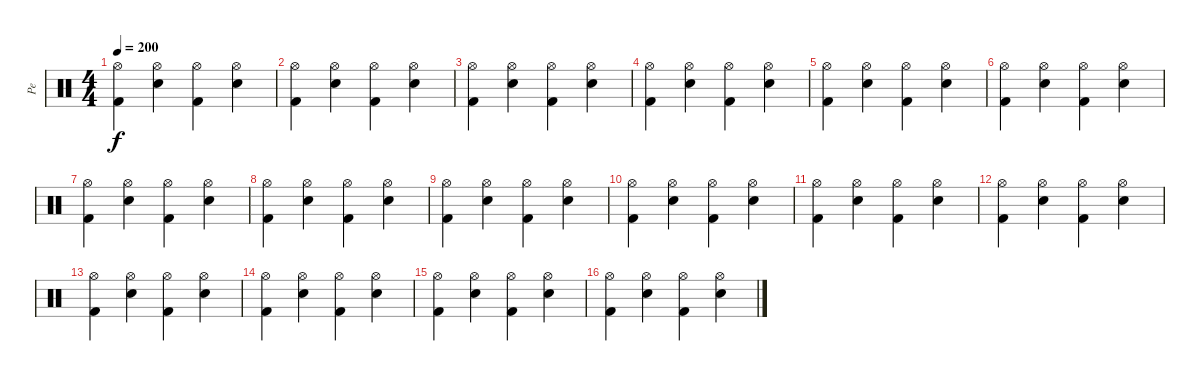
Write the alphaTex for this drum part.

\track ("Pe" "Pe") {instrument percussion}
\staff {score}
\articulation defaults
\ts (4 4)
\tempo 200
\clef neutral
\ks c
("Hi-Hat (open)" "Kick (hit) 2").4{dy f} ("Hi-Hat (open)" "Electric Snare (hit)").4 ("Hi-Hat (open)" "Kick (hit) 2").4 ("Hi-Hat (open)" "Electric Snare (hit)").4 |
("Hi-Hat (open)" "Kick (hit) 2").4 ("Hi-Hat (open)" "Electric Snare (hit)").4 ("Hi-Hat (open)" "Kick (hit) 2").4 ("Hi-Hat (open)" "Electric Snare (hit)").4 |
("Hi-Hat (open)" "Kick (hit) 2").4 ("Hi-Hat (open)" "Electric Snare (hit)").4 ("Hi-Hat (open)" "Kick (hit) 2").4 ("Hi-Hat (open)" "Electric Snare (hit)").4 |
("Hi-Hat (open)" "Kick (hit) 2").4 ("Hi-Hat (open)" "Electric Snare (hit)").4 ("Hi-Hat (open)" "Kick (hit) 2").4 ("Hi-Hat (open)" "Electric Snare (hit)").4 |
("Hi-Hat (open)" "Kick (hit) 2").4 ("Hi-Hat (open)" "Electric Snare (hit)").4 ("Hi-Hat (open)" "Kick (hit) 2").4 ("Hi-Hat (open)" "Electric Snare (hit)").4 |
("Hi-Hat (open)" "Kick (hit) 2").4 ("Hi-Hat (open)" "Electric Snare (hit)").4 ("Hi-Hat (open)" "Kick (hit) 2").4 ("Hi-Hat (open)" "Electric Snare (hit)").4 |
("Hi-Hat (open)" "Kick (hit) 2").4 ("Hi-Hat (open)" "Electric Snare (hit)").4 ("Hi-Hat (open)" "Kick (hit) 2").4 ("Hi-Hat (open)" "Electric Snare (hit)").4 |
("Hi-Hat (open)" "Kick (hit) 2").4 ("Hi-Hat (open)" "Electric Snare (hit)").4 ("Hi-Hat (open)" "Kick (hit) 2").4 ("Hi-Hat (open)" "Electric Snare (hit)").4 |
("Hi-Hat (open)" "Kick (hit) 2").4 ("Hi-Hat (open)" "Electric Snare (hit)").4 ("Hi-Hat (open)" "Kick (hit) 2").4 ("Hi-Hat (open)" "Electric Snare (hit)").4 |
("Hi-Hat (open)" "Kick (hit) 2").4 ("Hi-Hat (open)" "Electric Snare (hit)").4 ("Hi-Hat (open)" "Kick (hit) 2").4 ("Hi-Hat (open)" "Electric Snare (hit)").4 |
("Hi-Hat (open)" "Kick (hit) 2").4 ("Hi-Hat (open)" "Electric Snare (hit)").4 ("Hi-Hat (open)" "Kick (hit) 2").4 ("Hi-Hat (open)" "Electric Snare (hit)").4 |
("Hi-Hat (open)" "Kick (hit) 2").4 ("Hi-Hat (open)" "Electric Snare (hit)").4 ("Hi-Hat (open)" "Kick (hit) 2").4 ("Hi-Hat (open)" "Electric Snare (hit)").4 |
("Hi-Hat (open)" "Kick (hit) 2").4 ("Hi-Hat (open)" "Electric Snare (hit)").4 ("Hi-Hat (open)" "Kick (hit) 2").4 ("Hi-Hat (open)" "Electric Snare (hit)").4 |
("Hi-Hat (open)" "Kick (hit) 2").4 ("Hi-Hat (open)" "Electric Snare (hit)").4 ("Hi-Hat (open)" "Kick (hit) 2").4 ("Hi-Hat (open)" "Electric Snare (hit)").4 |
("Hi-Hat (open)" "Kick (hit) 2").4 ("Hi-Hat (open)" "Electric Snare (hit)").4 ("Hi-Hat (open)" "Kick (hit) 2").4 ("Hi-Hat (open)" "Electric Snare (hit)").4 |
("Hi-Hat (open)" "Kick (hit) 2").4 ("Hi-Hat (open)" "Electric Snare (hit)").4 ("Hi-Hat (open)" "Kick (hit) 2").4 ("Hi-Hat (open)" "Electric Snare (hit)").4
